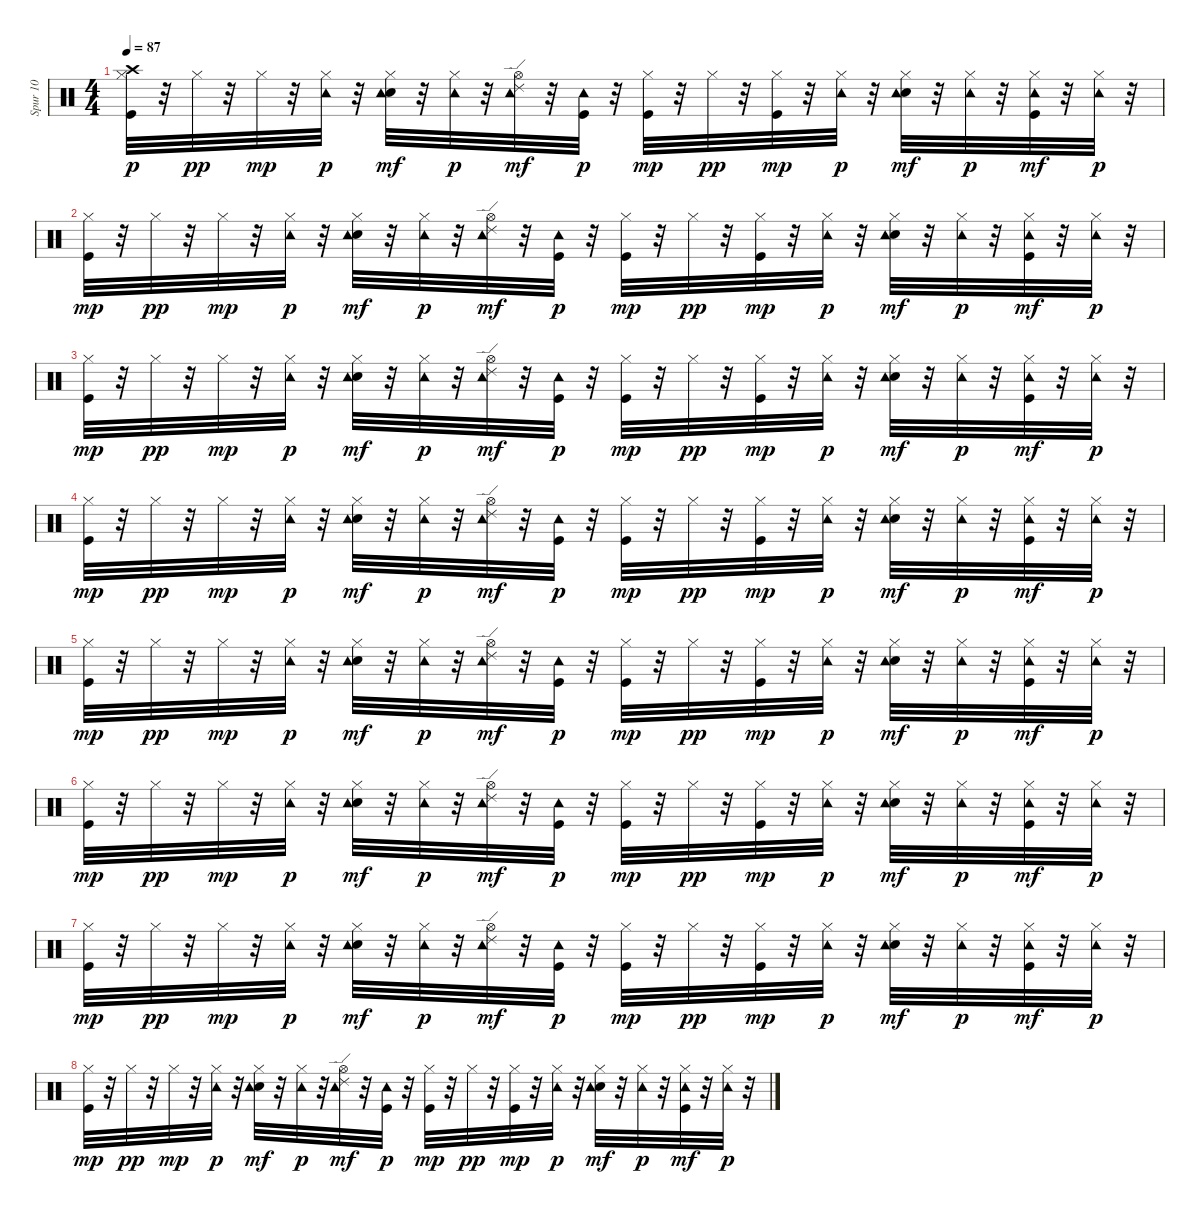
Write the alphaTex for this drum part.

\track ("Spur 10" "Spur 10") {instrument percussion}
\staff {score}
\articulation defaults
\ts (4 4)
\tempo 87
\clef neutral
\ks c
("Kick (hit)" "Hi-Hat (closed)" "Crash high (hit)").32{dy p} r.32 "Hi-Hat (closed)".32{dy pp} r.32 "Hi-Hat (closed)".32{dy mp} r.32 ("Hi-Hat (closed)" "Tambourine (hit)").32{dy p} r.32 ("Electric Snare (hit)" "Hi-Hat (closed)" "Tambourine (hit)").32{dy mf} r.32 ("Hi-Hat (closed)" "Tambourine (hit)").32{dy p} r.32 ("Hi-Hat (open)" "Tambourine (hit)" "Ride (edge) 2").32{dy mf} r.32 ("Kick (hit)" "Tambourine (hit)").32{dy p} r.32 ("Kick (hit)" "Hi-Hat (closed)").32{dy mp} r.32 "Hi-Hat (closed)".32{dy pp} r.32 ("Kick (hit)" "Hi-Hat (closed)").32{dy mp} r.32 ("Hi-Hat (closed)" "Tambourine (hit)").32{dy p} r.32 ("Electric Snare (hit)" "Hi-Hat (closed)" "Tambourine (hit)").32{dy mf} r.32 ("Hi-Hat (closed)" "Tambourine (hit)").32{dy p} r.32 ("Kick (hit)" "Hi-Hat (closed)" "Tambourine (hit)").32{dy mf} r.32 ("Hi-Hat (closed)" "Tambourine (hit)").32{dy p} r.32 |
("Kick (hit)" "Hi-Hat (closed)").32{dy mp} r.32 "Hi-Hat (closed)".32{dy pp} r.32 "Hi-Hat (closed)".32{dy mp} r.32 ("Hi-Hat (closed)" "Tambourine (hit)").32{dy p} r.32 ("Electric Snare (hit)" "Hi-Hat (closed)" "Tambourine (hit)").32{dy mf} r.32 ("Hi-Hat (closed)" "Tambourine (hit)").32{dy p} r.32 ("Hi-Hat (open)" "Tambourine (hit)" "Ride (edge) 2").32{dy mf} r.32 ("Kick (hit)" "Tambourine (hit)").32{dy p} r.32 ("Kick (hit)" "Hi-Hat (closed)").32{dy mp} r.32 "Hi-Hat (closed)".32{dy pp} r.32 ("Kick (hit)" "Hi-Hat (closed)").32{dy mp} r.32 ("Hi-Hat (closed)" "Tambourine (hit)").32{dy p} r.32 ("Electric Snare (hit)" "Hi-Hat (closed)" "Tambourine (hit)").32{dy mf} r.32 ("Hi-Hat (closed)" "Tambourine (hit)").32{dy p} r.32 ("Kick (hit)" "Hi-Hat (closed)" "Tambourine (hit)").32{dy mf} r.32 ("Hi-Hat (closed)" "Tambourine (hit)").32{dy p} r.32 |
("Kick (hit)" "Hi-Hat (closed)").32{dy mp} r.32 "Hi-Hat (closed)".32{dy pp} r.32 "Hi-Hat (closed)".32{dy mp} r.32 ("Hi-Hat (closed)" "Tambourine (hit)").32{dy p} r.32 ("Electric Snare (hit)" "Hi-Hat (closed)" "Tambourine (hit)").32{dy mf} r.32 ("Hi-Hat (closed)" "Tambourine (hit)").32{dy p} r.32 ("Hi-Hat (open)" "Tambourine (hit)" "Ride (edge) 2").32{dy mf} r.32 ("Kick (hit)" "Tambourine (hit)").32{dy p} r.32 ("Kick (hit)" "Hi-Hat (closed)").32{dy mp} r.32 "Hi-Hat (closed)".32{dy pp} r.32 ("Kick (hit)" "Hi-Hat (closed)").32{dy mp} r.32 ("Hi-Hat (closed)" "Tambourine (hit)").32{dy p} r.32 ("Electric Snare (hit)" "Hi-Hat (closed)" "Tambourine (hit)").32{dy mf} r.32 ("Hi-Hat (closed)" "Tambourine (hit)").32{dy p} r.32 ("Kick (hit)" "Hi-Hat (closed)" "Tambourine (hit)").32{dy mf} r.32 ("Hi-Hat (closed)" "Tambourine (hit)").32{dy p} r.32 |
("Kick (hit)" "Hi-Hat (closed)").32{dy mp} r.32 "Hi-Hat (closed)".32{dy pp} r.32 "Hi-Hat (closed)".32{dy mp} r.32 ("Hi-Hat (closed)" "Tambourine (hit)").32{dy p} r.32 ("Electric Snare (hit)" "Hi-Hat (closed)" "Tambourine (hit)").32{dy mf} r.32 ("Hi-Hat (closed)" "Tambourine (hit)").32{dy p} r.32 ("Hi-Hat (open)" "Tambourine (hit)" "Ride (edge) 2").32{dy mf} r.32 ("Kick (hit)" "Tambourine (hit)").32{dy p} r.32 ("Kick (hit)" "Hi-Hat (closed)").32{dy mp} r.32 "Hi-Hat (closed)".32{dy pp} r.32 ("Kick (hit)" "Hi-Hat (closed)").32{dy mp} r.32 ("Hi-Hat (closed)" "Tambourine (hit)").32{dy p} r.32 ("Electric Snare (hit)" "Hi-Hat (closed)" "Tambourine (hit)").32{dy mf} r.32 ("Hi-Hat (closed)" "Tambourine (hit)").32{dy p} r.32 ("Kick (hit)" "Hi-Hat (closed)" "Tambourine (hit)").32{dy mf} r.32 ("Hi-Hat (closed)" "Tambourine (hit)").32{dy p} r.32 |
("Kick (hit)" "Hi-Hat (closed)").32{dy mp} r.32 "Hi-Hat (closed)".32{dy pp} r.32 "Hi-Hat (closed)".32{dy mp} r.32 ("Hi-Hat (closed)" "Tambourine (hit)").32{dy p} r.32 ("Electric Snare (hit)" "Hi-Hat (closed)" "Tambourine (hit)").32{dy mf} r.32 ("Hi-Hat (closed)" "Tambourine (hit)").32{dy p} r.32 ("Hi-Hat (open)" "Tambourine (hit)" "Ride (edge) 2").32{dy mf} r.32 ("Kick (hit)" "Tambourine (hit)").32{dy p} r.32 ("Kick (hit)" "Hi-Hat (closed)").32{dy mp} r.32 "Hi-Hat (closed)".32{dy pp} r.32 ("Kick (hit)" "Hi-Hat (closed)").32{dy mp} r.32 ("Hi-Hat (closed)" "Tambourine (hit)").32{dy p} r.32 ("Electric Snare (hit)" "Hi-Hat (closed)" "Tambourine (hit)").32{dy mf} r.32 ("Hi-Hat (closed)" "Tambourine (hit)").32{dy p} r.32 ("Kick (hit)" "Hi-Hat (closed)" "Tambourine (hit)").32{dy mf} r.32 ("Hi-Hat (closed)" "Tambourine (hit)").32{dy p} r.32 |
("Kick (hit)" "Hi-Hat (closed)").32{dy mp} r.32 "Hi-Hat (closed)".32{dy pp} r.32 "Hi-Hat (closed)".32{dy mp} r.32 ("Hi-Hat (closed)" "Tambourine (hit)").32{dy p} r.32 ("Electric Snare (hit)" "Hi-Hat (closed)" "Tambourine (hit)").32{dy mf} r.32 ("Hi-Hat (closed)" "Tambourine (hit)").32{dy p} r.32 ("Hi-Hat (open)" "Tambourine (hit)" "Ride (edge) 2").32{dy mf} r.32 ("Kick (hit)" "Tambourine (hit)").32{dy p} r.32 ("Kick (hit)" "Hi-Hat (closed)").32{dy mp} r.32 "Hi-Hat (closed)".32{dy pp} r.32 ("Kick (hit)" "Hi-Hat (closed)").32{dy mp} r.32 ("Hi-Hat (closed)" "Tambourine (hit)").32{dy p} r.32 ("Electric Snare (hit)" "Hi-Hat (closed)" "Tambourine (hit)").32{dy mf} r.32 ("Hi-Hat (closed)" "Tambourine (hit)").32{dy p} r.32 ("Kick (hit)" "Hi-Hat (closed)" "Tambourine (hit)").32{dy mf} r.32 ("Hi-Hat (closed)" "Tambourine (hit)").32{dy p} r.32 |
("Kick (hit)" "Hi-Hat (closed)").32{dy mp} r.32 "Hi-Hat (closed)".32{dy pp} r.32 "Hi-Hat (closed)".32{dy mp} r.32 ("Hi-Hat (closed)" "Tambourine (hit)").32{dy p} r.32 ("Electric Snare (hit)" "Hi-Hat (closed)" "Tambourine (hit)").32{dy mf} r.32 ("Hi-Hat (closed)" "Tambourine (hit)").32{dy p} r.32 ("Hi-Hat (open)" "Tambourine (hit)" "Ride (edge) 2").32{dy mf} r.32 ("Kick (hit)" "Tambourine (hit)").32{dy p} r.32 ("Kick (hit)" "Hi-Hat (closed)").32{dy mp} r.32 "Hi-Hat (closed)".32{dy pp} r.32 ("Kick (hit)" "Hi-Hat (closed)").32{dy mp} r.32 ("Hi-Hat (closed)" "Tambourine (hit)").32{dy p} r.32 ("Electric Snare (hit)" "Hi-Hat (closed)" "Tambourine (hit)").32{dy mf} r.32 ("Hi-Hat (closed)" "Tambourine (hit)").32{dy p} r.32 ("Kick (hit)" "Hi-Hat (closed)" "Tambourine (hit)").32{dy mf} r.32 ("Hi-Hat (closed)" "Tambourine (hit)").32{dy p} r.32 |
("Kick (hit)" "Hi-Hat (closed)").32{dy mp} r.32 "Hi-Hat (closed)".32{dy pp} r.32 "Hi-Hat (closed)".32{dy mp} r.32 ("Hi-Hat (closed)" "Tambourine (hit)").32{dy p} r.32 ("Electric Snare (hit)" "Hi-Hat (closed)" "Tambourine (hit)").32{dy mf} r.32 ("Hi-Hat (closed)" "Tambourine (hit)").32{dy p} r.32 ("Hi-Hat (open)" "Tambourine (hit)" "Ride (edge) 2").32{dy mf} r.32 ("Kick (hit)" "Tambourine (hit)").32{dy p} r.32 ("Kick (hit)" "Hi-Hat (closed)").32{dy mp} r.32 "Hi-Hat (closed)".32{dy pp} r.32 ("Kick (hit)" "Hi-Hat (closed)").32{dy mp} r.32 ("Hi-Hat (closed)" "Tambourine (hit)").32{dy p} r.32 ("Electric Snare (hit)" "Hi-Hat (closed)" "Tambourine (hit)").32{dy mf} r.32 ("Hi-Hat (closed)" "Tambourine (hit)").32{dy p} r.32 ("Kick (hit)" "Hi-Hat (closed)" "Tambourine (hit)").32{dy mf} r.32 ("Hi-Hat (closed)" "Tambourine (hit)").32{dy p} r.32
